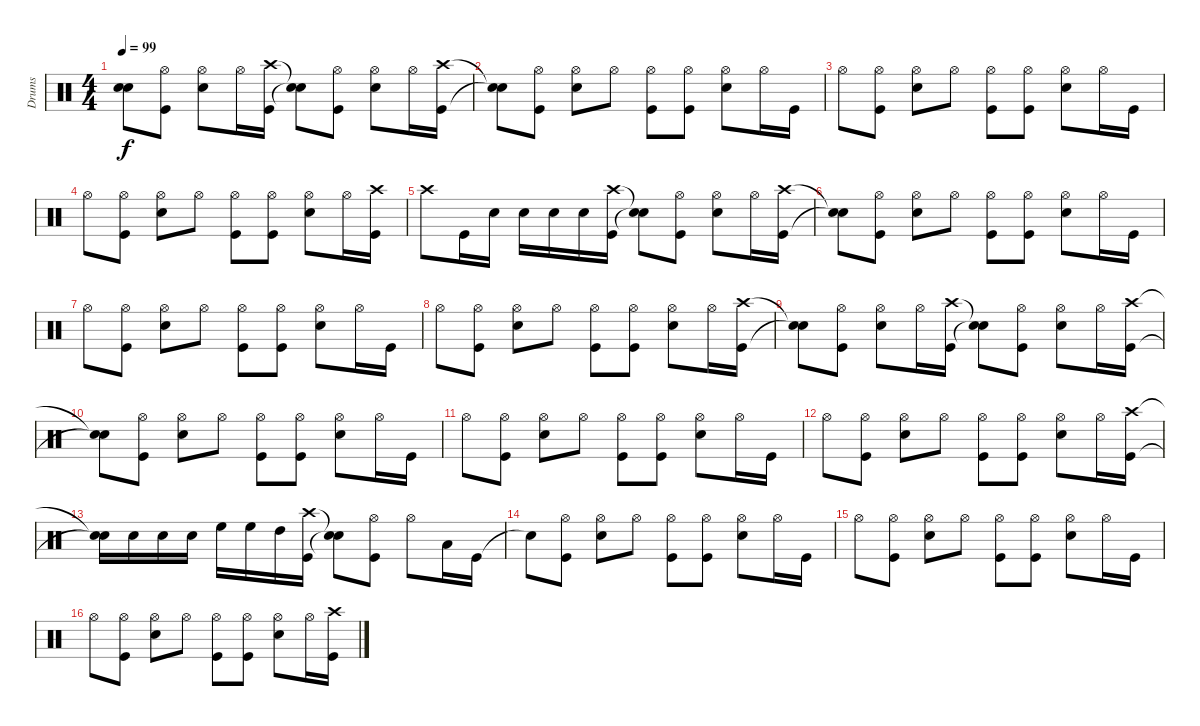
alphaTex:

\track ("Drums" "Drums") {instrument percussion}
\staff {score}
\articulation defaults
\ts (4 4)
\tempo 99
\clef neutral
\ks c
("Snare (hit)"{t} "Snare (hit)"{t}).8{dy f} ("Hi-Hat (open)" "Kick (hit)").8 ("Hi-Hat (open)" "Electric Snare (hit)").8 "Hi-Hat (open)".16 ("Crash high (hit)" "Kick (hit)").16 ("Snare (hit)"{t} "Snare (hit)"{t}).8 ("Hi-Hat (open)" "Kick (hit)").8 ("Hi-Hat (open)" "Electric Snare (hit)").8 "Hi-Hat (open)".16 ("Crash high (hit)" "Kick (hit)").16 |
("Snare (hit)"{t} "Snare (hit)"{t}).8 ("Hi-Hat (open)" "Kick (hit)").8 ("Hi-Hat (open)" "Electric Snare (hit)").8 "Hi-Hat (open)".8 ("Hi-Hat (open)" "Kick (hit)").8 ("Hi-Hat (open)" "Kick (hit)").8 ("Hi-Hat (open)" "Electric Snare (hit)").8 "Hi-Hat (open)".16 "Kick (hit)".16 |
"Hi-Hat (open)".8 ("Hi-Hat (open)" "Kick (hit)").8 ("Hi-Hat (open)" "Electric Snare (hit)").8 "Hi-Hat (open)".8 ("Hi-Hat (open)" "Kick (hit)").8 ("Hi-Hat (open)" "Kick (hit)").8 ("Hi-Hat (open)" "Electric Snare (hit)").8 "Hi-Hat (open)".16 "Kick (hit)".16 |
"Hi-Hat (open)".8 ("Hi-Hat (open)" "Kick (hit)").8 ("Hi-Hat (open)" "Electric Snare (hit)").8 "Hi-Hat (open)".8 ("Hi-Hat (open)" "Kick (hit)").8 ("Hi-Hat (open)" "Kick (hit)").8 ("Hi-Hat (open)" "Electric Snare (hit)").8 "Hi-Hat (open)".16 ("Crash high (hit)" "Kick (hit)").16 |
"Crash high (hit)".8 "Kick (hit)".16 "Electric Snare (hit)".16 "Electric Snare (hit)".16 "Electric Snare (hit)".16 "Electric Snare (hit)".16 ("Crash high (hit)" "Kick (hit)").16 ("Snare (hit)"{t} "Snare (hit)"{t}).8 ("Hi-Hat (open)" "Kick (hit)").8 ("Hi-Hat (open)" "Electric Snare (hit)").8 "Hi-Hat (open)".16 ("Crash high (hit)" "Kick (hit)").16 |
("Snare (hit)"{t} "Snare (hit)"{t}).8 ("Hi-Hat (open)" "Kick (hit)").8 ("Hi-Hat (open)" "Electric Snare (hit)").8 "Hi-Hat (open)".8 ("Hi-Hat (open)" "Kick (hit)").8 ("Hi-Hat (open)" "Kick (hit)").8 ("Hi-Hat (open)" "Electric Snare (hit)").8 "Hi-Hat (open)".16 "Kick (hit)".16 |
"Hi-Hat (open)".8 ("Hi-Hat (open)" "Kick (hit)").8 ("Hi-Hat (open)" "Electric Snare (hit)").8 "Hi-Hat (open)".8 ("Hi-Hat (open)" "Kick (hit)").8 ("Hi-Hat (open)" "Kick (hit)").8 ("Hi-Hat (open)" "Electric Snare (hit)").8 "Hi-Hat (open)".16 "Kick (hit)".16 |
"Hi-Hat (open)".8 ("Hi-Hat (open)" "Kick (hit)").8 ("Hi-Hat (open)" "Electric Snare (hit)").8 "Hi-Hat (open)".8 ("Hi-Hat (open)" "Kick (hit)").8 ("Hi-Hat (open)" "Kick (hit)").8 ("Hi-Hat (open)" "Electric Snare (hit)").8 "Hi-Hat (open)".16 ("Crash high (hit)" "Kick (hit)").16 |
("Snare (hit)"{t} "Snare (hit)"{t}).8 ("Hi-Hat (open)" "Kick (hit)").8 ("Hi-Hat (open)" "Electric Snare (hit)").8 "Hi-Hat (open)".16 ("Crash high (hit)" "Kick (hit)").16 ("Snare (hit)"{t} "Snare (hit)"{t}).8 ("Hi-Hat (open)" "Kick (hit)").8 ("Hi-Hat (open)" "Electric Snare (hit)").8 "Hi-Hat (open)".16 ("Crash high (hit)" "Kick (hit)").16 |
("Snare (hit)"{t} "Snare (hit)"{t}).8 ("Hi-Hat (open)" "Kick (hit)").8 ("Hi-Hat (open)" "Electric Snare (hit)").8 "Hi-Hat (open)".8 ("Hi-Hat (open)" "Kick (hit)").8 ("Hi-Hat (open)" "Kick (hit)").8 ("Hi-Hat (open)" "Electric Snare (hit)").8 "Hi-Hat (open)".16 "Kick (hit)".16 |
"Hi-Hat (open)".8 ("Hi-Hat (open)" "Kick (hit)").8 ("Hi-Hat (open)" "Electric Snare (hit)").8 "Hi-Hat (open)".8 ("Hi-Hat (open)" "Kick (hit)").8 ("Hi-Hat (open)" "Kick (hit)").8 ("Hi-Hat (open)" "Electric Snare (hit)").8 "Hi-Hat (open)".16 "Kick (hit)".16 |
"Hi-Hat (open)".8 ("Hi-Hat (open)" "Kick (hit)").8 ("Hi-Hat (open)" "Electric Snare (hit)").8 "Hi-Hat (open)".8 ("Hi-Hat (open)" "Kick (hit)").8 ("Hi-Hat (open)" "Kick (hit)").8 ("Hi-Hat (open)" "Electric Snare (hit)").8 "Hi-Hat (open)".16 ("Crash high (hit)" "Kick (hit)").16 |
("Snare (hit)"{t} "Snare (hit)"{t}).16 "Electric Snare (hit)".16 "Electric Snare (hit)".16 "Electric Snare (hit)".16 "High Floor Tom (hit)".16 "High Floor Tom (hit)".16 "High Tom (hit)".16 ("Crash high (hit)" "Kick (hit)").16 ("Snare (hit)"{t} "Snare (hit)"{t}).8 ("Hi-Hat (open)" "Kick (hit)").8 "Hi-Hat (open)".8 "Low Tom (hit)".16 "Kick (hit)".16 |
"Snare (hit)"{t}.8 ("Hi-Hat (open)" "Kick (hit)").8 ("Hi-Hat (open)" "Electric Snare (hit)").8 "Hi-Hat (open)".8 ("Hi-Hat (open)" "Kick (hit)").8 ("Hi-Hat (open)" "Kick (hit)").8 ("Hi-Hat (open)" "Electric Snare (hit)").8 "Hi-Hat (open)".16 "Kick (hit)".16 |
"Hi-Hat (open)".8 ("Hi-Hat (open)" "Kick (hit)").8 ("Hi-Hat (open)" "Electric Snare (hit)").8 "Hi-Hat (open)".8 ("Hi-Hat (open)" "Kick (hit)").8 ("Hi-Hat (open)" "Kick (hit)").8 ("Hi-Hat (open)" "Electric Snare (hit)").8 "Hi-Hat (open)".16 "Kick (hit)".16 |
"Hi-Hat (open)".8 ("Hi-Hat (open)" "Kick (hit)").8 ("Hi-Hat (open)" "Electric Snare (hit)").8 "Hi-Hat (open)".8 ("Hi-Hat (open)" "Kick (hit)").8 ("Hi-Hat (open)" "Kick (hit)").8 ("Hi-Hat (open)" "Electric Snare (hit)").8 "Hi-Hat (open)".16 ("Crash high (hit)" "Kick (hit)").16
